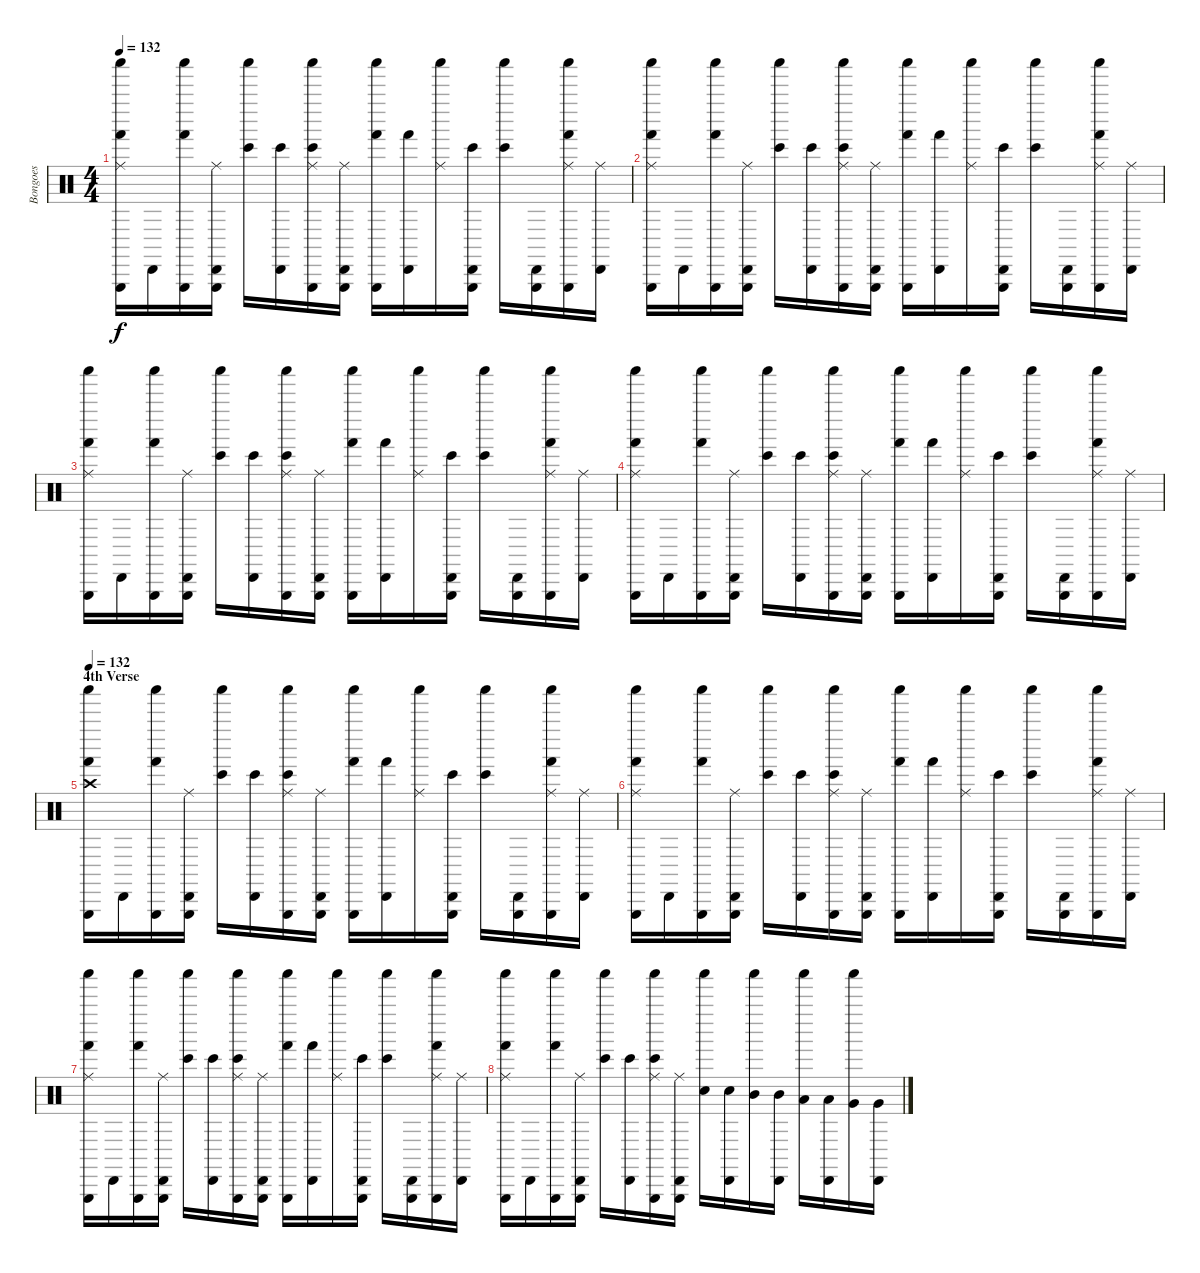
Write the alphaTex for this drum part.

\track ("Bongoes" "Bongoes") {instrument percussion}
\staff {score}
\articulation defaults
\ts (4 4)
\tempo 132
\clef neutral
\ks c
("Shaker (hit)" "Triangle (hit)" "Hand (hit)" "Ride (middle)").16{dy f} "Cabasa (hit)".16 ("Shaker (hit)" "Triangle (hit)" "Hand (hit)").16 ("Cabasa (hit)" "Triangle (hit)" "Ride (middle)").16 ("Shaker (hit)" "Bongo High (hit)").16 ("Cabasa (hit)" "Bongo High (hit)").16 ("Shaker (hit)" "Triangle (hit)" "Bongo High (hit)" "Ride (middle)").16 ("Cabasa (hit)" "Triangle (hit)" "Ride (middle)").16 ("Shaker (hit)" "Triangle (hit)" "Hand (hit)").16 ("Cabasa (hit)" "Hand (hit)").16 ("Shaker (hit)" "Ride (middle)").16 ("Cabasa (hit)" "Triangle (hit)" "Bongo High (hit)").16 ("Shaker (hit)" "Bongo High (hit)").16 ("Cabasa (hit)" "Triangle (hit)").16 ("Shaker (hit)" "Triangle (hit)" "Hand (hit)" "Ride (middle)").16 ("Cabasa (hit)" "Ride (middle)").16 |
("Shaker (hit)" "Triangle (hit)" "Hand (hit)" "Ride (middle)").16 "Cabasa (hit)".16 ("Shaker (hit)" "Triangle (hit)" "Hand (hit)").16 ("Cabasa (hit)" "Triangle (hit)" "Ride (middle)").16 ("Shaker (hit)" "Bongo High (hit)").16 ("Cabasa (hit)" "Bongo High (hit)").16 ("Shaker (hit)" "Triangle (hit)" "Bongo High (hit)" "Ride (middle)").16 ("Cabasa (hit)" "Triangle (hit)" "Ride (middle)").16 ("Shaker (hit)" "Triangle (hit)" "Hand (hit)").16 ("Cabasa (hit)" "Hand (hit)").16 ("Shaker (hit)" "Ride (middle)").16 ("Cabasa (hit)" "Triangle (hit)" "Bongo High (hit)").16 ("Shaker (hit)" "Bongo High (hit)").16 ("Cabasa (hit)" "Triangle (hit)").16 ("Shaker (hit)" "Triangle (hit)" "Hand (hit)" "Ride (middle)").16 ("Cabasa (hit)" "Ride (middle)").16 |
("Shaker (hit)" "Triangle (hit)" "Hand (hit)" "Ride (middle)").16 "Cabasa (hit)".16 ("Shaker (hit)" "Triangle (hit)" "Hand (hit)").16 ("Cabasa (hit)" "Triangle (hit)" "Ride (middle)").16 ("Shaker (hit)" "Bongo High (hit)").16 ("Cabasa (hit)" "Bongo High (hit)").16 ("Shaker (hit)" "Triangle (hit)" "Bongo High (hit)" "Ride (middle)").16 ("Cabasa (hit)" "Triangle (hit)" "Ride (middle)").16 ("Shaker (hit)" "Triangle (hit)" "Hand (hit)").16 ("Cabasa (hit)" "Hand (hit)").16 ("Shaker (hit)" "Ride (middle)").16 ("Cabasa (hit)" "Triangle (hit)" "Bongo High (hit)").16 ("Shaker (hit)" "Bongo High (hit)").16 ("Cabasa (hit)" "Triangle (hit)").16 ("Shaker (hit)" "Triangle (hit)" "Hand (hit)" "Ride (middle)").16 ("Cabasa (hit)" "Ride (middle)").16 |
("Shaker (hit)" "Triangle (hit)" "Hand (hit)" "Ride (middle)").16 "Cabasa (hit)".16 ("Shaker (hit)" "Triangle (hit)" "Hand (hit)").16 ("Cabasa (hit)" "Triangle (hit)" "Ride (middle)").16 ("Shaker (hit)" "Bongo High (hit)").16 ("Cabasa (hit)" "Bongo High (hit)").16 ("Shaker (hit)" "Triangle (hit)" "Bongo High (hit)" "Ride (middle)").16 ("Cabasa (hit)" "Triangle (hit)" "Ride (middle)").16 ("Shaker (hit)" "Triangle (hit)" "Hand (hit)").16 ("Cabasa (hit)" "Hand (hit)").16 ("Shaker (hit)" "Ride (middle)").16 ("Cabasa (hit)" "Triangle (hit)" "Bongo High (hit)").16 ("Shaker (hit)" "Bongo High (hit)").16 ("Cabasa (hit)" "Triangle (hit)").16 ("Shaker (hit)" "Triangle (hit)" "Hand (hit)" "Ride (middle)").16 ("Cabasa (hit)" "Ride (middle)").16 |
\section ("" "4th Verse")
\tempo 132
("Shaker (hit)" "Triangle (hit)" "Hand (hit)" "Crash high (hit)").16 "Cabasa (hit)".16 ("Shaker (hit)" "Triangle (hit)" "Hand (hit)").16 ("Cabasa (hit)" "Triangle (hit)" "Ride (middle)").16 ("Shaker (hit)" "Bongo High (hit)").16 ("Cabasa (hit)" "Bongo High (hit)").16 ("Shaker (hit)" "Triangle (hit)" "Bongo High (hit)" "Ride (middle)").16 ("Cabasa (hit)" "Triangle (hit)" "Ride (middle)").16 ("Shaker (hit)" "Triangle (hit)" "Hand (hit)").16 ("Cabasa (hit)" "Hand (hit)").16 ("Shaker (hit)" "Ride (middle)").16 ("Cabasa (hit)" "Triangle (hit)" "Bongo High (hit)").16 ("Shaker (hit)" "Bongo High (hit)").16 ("Cabasa (hit)" "Triangle (hit)").16 ("Shaker (hit)" "Triangle (hit)" "Hand (hit)" "Ride (middle)").16 ("Cabasa (hit)" "Ride (middle)").16 |
("Shaker (hit)" "Triangle (hit)" "Hand (hit)" "Ride (middle)").16 "Cabasa (hit)".16 ("Shaker (hit)" "Triangle (hit)" "Hand (hit)").16 ("Cabasa (hit)" "Triangle (hit)" "Ride (middle)").16 ("Shaker (hit)" "Bongo High (hit)").16 ("Cabasa (hit)" "Bongo High (hit)").16 ("Shaker (hit)" "Triangle (hit)" "Bongo High (hit)" "Ride (middle)").16 ("Cabasa (hit)" "Triangle (hit)" "Ride (middle)").16 ("Shaker (hit)" "Triangle (hit)" "Hand (hit)").16 ("Cabasa (hit)" "Hand (hit)").16 ("Shaker (hit)" "Ride (middle)").16 ("Cabasa (hit)" "Triangle (hit)" "Bongo High (hit)").16 ("Shaker (hit)" "Bongo High (hit)").16 ("Cabasa (hit)" "Triangle (hit)").16 ("Shaker (hit)" "Triangle (hit)" "Hand (hit)" "Ride (middle)").16 ("Cabasa (hit)" "Ride (middle)").16 |
("Shaker (hit)" "Triangle (hit)" "Hand (hit)" "Ride (middle)").16 "Cabasa (hit)".16 ("Shaker (hit)" "Triangle (hit)" "Hand (hit)").16 ("Cabasa (hit)" "Triangle (hit)" "Ride (middle)").16 ("Shaker (hit)" "Bongo High (hit)").16 ("Cabasa (hit)" "Bongo High (hit)").16 ("Shaker (hit)" "Triangle (hit)" "Bongo High (hit)" "Ride (middle)").16 ("Cabasa (hit)" "Triangle (hit)" "Ride (middle)").16 ("Shaker (hit)" "Triangle (hit)" "Hand (hit)").16 ("Cabasa (hit)" "Hand (hit)").16 ("Shaker (hit)" "Ride (middle)").16 ("Cabasa (hit)" "Triangle (hit)" "Bongo High (hit)").16 ("Shaker (hit)" "Bongo High (hit)").16 ("Cabasa (hit)" "Triangle (hit)").16 ("Shaker (hit)" "Triangle (hit)" "Hand (hit)" "Ride (middle)").16 ("Cabasa (hit)" "Ride (middle)").16 |
("Shaker (hit)" "Triangle (hit)" "Hand (hit)" "Ride (middle)").16 "Cabasa (hit)".16 ("Shaker (hit)" "Triangle (hit)" "Hand (hit)").16 ("Cabasa (hit)" "Triangle (hit)" "Ride (middle)").16 ("Shaker (hit)" "Bongo High (hit)").16 ("Cabasa (hit)" "Bongo High (hit)").16 ("Shaker (hit)" "Triangle (hit)" "Bongo High (hit)" "Ride (middle)").16 ("Cabasa (hit)" "Triangle (hit)" "Ride (middle)").16 ("Shaker (hit)" "Snare (hit) 2").16 ("Cabasa (hit)" "Snare (hit) 2").16 ("Shaker (hit)" "Mid Tom (hit)").16 ("Cabasa (hit)" "Mid Tom (hit)").16 ("Shaker (hit)" "Low Tom (hit)").16 ("Cabasa (hit)" "Low Tom (hit)").16 ("Shaker (hit)" "Very Low Tom (hit)").16 ("Cabasa (hit)" "Very Low Tom (hit)").16
